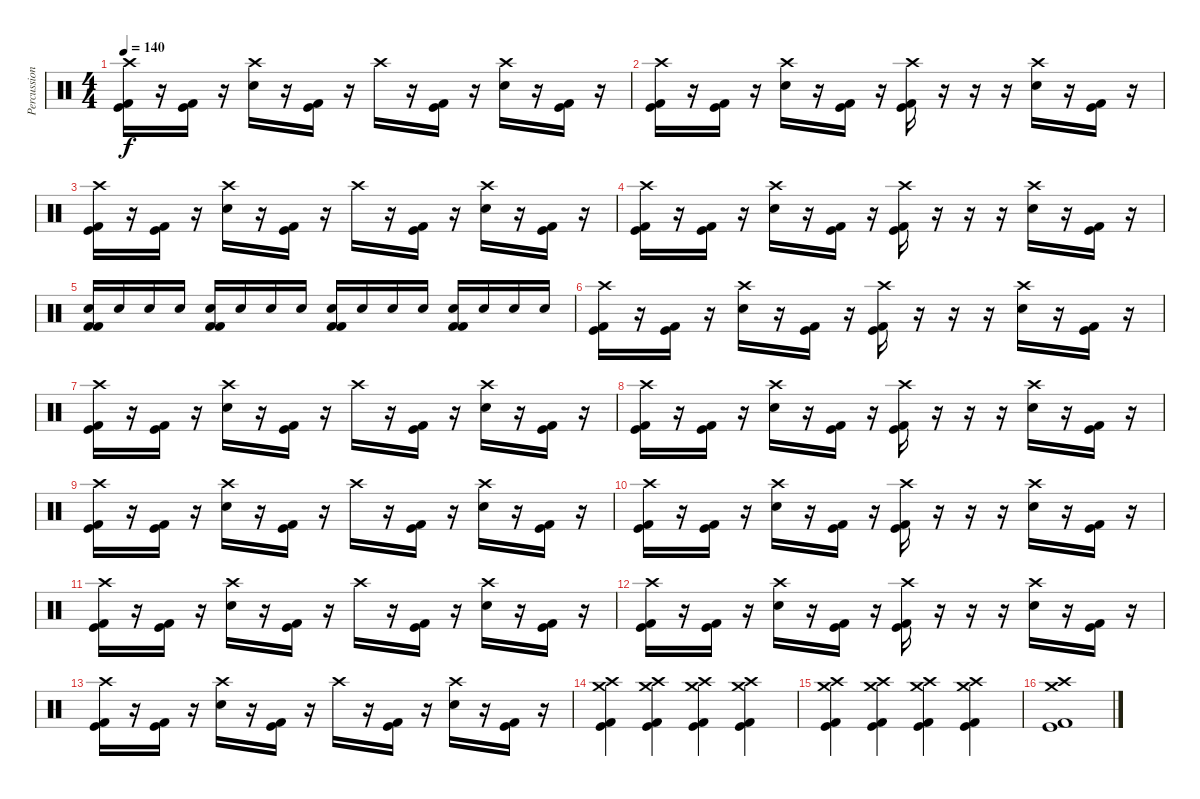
\track ("Percussion" "Percussion") {instrument percussion}
\staff {score}
\articulation defaults
\ts (4 4)
\tempo 140
\clef neutral
\ks c
("Crash high (hit)" "Kick (hit)" "Kick (hit) 2").16{dy f} r.16 ("Kick (hit)" "Kick (hit) 2").16 r.16 ("Crash high (hit)" "Electric Snare (hit)").16 r.16 ("Kick (hit)" "Kick (hit) 2").16 r.16 "Crash high (hit)".16 r.16 ("Kick (hit)" "Kick (hit) 2").16 r.16 ("Crash high (hit)" "Electric Snare (hit)").16 r.16 ("Kick (hit)" "Kick (hit) 2").16 r.16 |
("Crash high (hit)" "Kick (hit)" "Kick (hit) 2").16 r.16 ("Kick (hit)" "Kick (hit) 2").16 r.16 ("Crash high (hit)" "Electric Snare (hit)").16 r.16 ("Kick (hit)" "Kick (hit) 2").16 r.16 ("Crash high (hit)" "Kick (hit)" "Kick (hit) 2").16 r.16 r.16 r.16 ("Crash high (hit)" "Electric Snare (hit)").16 r.16 ("Kick (hit)" "Kick (hit) 2").16 r.16 |
("Crash high (hit)" "Kick (hit)" "Kick (hit) 2").16 r.16 ("Kick (hit)" "Kick (hit) 2").16 r.16 ("Crash high (hit)" "Electric Snare (hit)").16 r.16 ("Kick (hit)" "Kick (hit) 2").16 r.16 "Crash high (hit)".16 r.16 ("Kick (hit)" "Kick (hit) 2").16 r.16 ("Crash high (hit)" "Electric Snare (hit)").16 r.16 ("Kick (hit)" "Kick (hit) 2").16 r.16 |
("Crash high (hit)" "Kick (hit)" "Kick (hit) 2").16 r.16 ("Kick (hit)" "Kick (hit) 2").16 r.16 ("Crash high (hit)" "Electric Snare (hit)").16 r.16 ("Kick (hit)" "Kick (hit) 2").16 r.16 ("Crash high (hit)" "Kick (hit)" "Kick (hit) 2").16 r.16 r.16 r.16 ("Crash high (hit)" "Electric Snare (hit)").16 r.16 ("Kick (hit)" "Kick (hit) 2").16 r.16 |
("Electric Snare (hit)" "Kick (hit) 2" "Kick (hit) 2").16 "Electric Snare (hit)".16 "Electric Snare (hit)".16 "Electric Snare (hit)".16 ("Electric Snare (hit)" "Kick (hit) 2" "Kick (hit) 2").16 "Electric Snare (hit)".16 "Electric Snare (hit)".16 "Electric Snare (hit)".16 ("Electric Snare (hit)" "Kick (hit) 2" "Kick (hit) 2").16 "Electric Snare (hit)".16 "Electric Snare (hit)".16 "Electric Snare (hit)".16 ("Electric Snare (hit)" "Kick (hit) 2" "Kick (hit) 2").16 "Electric Snare (hit)".16 "Electric Snare (hit)".16 "Electric Snare (hit)".16 |
("Crash high (hit)" "Kick (hit)" "Kick (hit) 2").16 r.16 ("Kick (hit)" "Kick (hit) 2").16 r.16 ("Crash high (hit)" "Electric Snare (hit)").16 r.16 ("Kick (hit)" "Kick (hit) 2").16 r.16 ("Crash high (hit)" "Kick (hit)" "Kick (hit) 2").16 r.16 r.16 r.16 ("Crash high (hit)" "Electric Snare (hit)").16 r.16 ("Kick (hit)" "Kick (hit) 2").16 r.16 |
("Crash high (hit)" "Kick (hit)" "Kick (hit) 2").16 r.16 ("Kick (hit)" "Kick (hit) 2").16 r.16 ("Crash high (hit)" "Electric Snare (hit)").16 r.16 ("Kick (hit)" "Kick (hit) 2").16 r.16 "Crash high (hit)".16 r.16 ("Kick (hit)" "Kick (hit) 2").16 r.16 ("Crash high (hit)" "Electric Snare (hit)").16 r.16 ("Kick (hit)" "Kick (hit) 2").16 r.16 |
("Crash high (hit)" "Kick (hit)" "Kick (hit) 2").16 r.16 ("Kick (hit)" "Kick (hit) 2").16 r.16 ("Crash high (hit)" "Electric Snare (hit)").16 r.16 ("Kick (hit)" "Kick (hit) 2").16 r.16 ("Crash high (hit)" "Kick (hit)" "Kick (hit) 2").16 r.16 r.16 r.16 ("Crash high (hit)" "Electric Snare (hit)").16 r.16 ("Kick (hit)" "Kick (hit) 2").16 r.16 |
("Crash high (hit)" "Kick (hit)" "Kick (hit) 2").16 r.16 ("Kick (hit)" "Kick (hit) 2").16 r.16 ("Crash high (hit)" "Electric Snare (hit)").16 r.16 ("Kick (hit)" "Kick (hit) 2").16 r.16 "Crash high (hit)".16 r.16 ("Kick (hit)" "Kick (hit) 2").16 r.16 ("Crash high (hit)" "Electric Snare (hit)").16 r.16 ("Kick (hit)" "Kick (hit) 2").16 r.16 |
("Crash high (hit)" "Kick (hit)" "Kick (hit) 2").16 r.16 ("Kick (hit)" "Kick (hit) 2").16 r.16 ("Crash high (hit)" "Electric Snare (hit)").16 r.16 ("Kick (hit)" "Kick (hit) 2").16 r.16 ("Crash high (hit)" "Kick (hit)" "Kick (hit) 2").16 r.16 r.16 r.16 ("Crash high (hit)" "Electric Snare (hit)").16 r.16 ("Kick (hit)" "Kick (hit) 2").16 r.16 |
("Crash high (hit)" "Kick (hit)" "Kick (hit) 2").16 r.16 ("Kick (hit)" "Kick (hit) 2").16 r.16 ("Crash high (hit)" "Electric Snare (hit)").16 r.16 ("Kick (hit)" "Kick (hit) 2").16 r.16 "Crash high (hit)".16 r.16 ("Kick (hit)" "Kick (hit) 2").16 r.16 ("Crash high (hit)" "Electric Snare (hit)").16 r.16 ("Kick (hit)" "Kick (hit) 2").16 r.16 |
("Crash high (hit)" "Kick (hit)" "Kick (hit) 2").16 r.16 ("Kick (hit)" "Kick (hit) 2").16 r.16 ("Crash high (hit)" "Electric Snare (hit)").16 r.16 ("Kick (hit)" "Kick (hit) 2").16 r.16 ("Crash high (hit)" "Kick (hit)" "Kick (hit) 2").16 r.16 r.16 r.16 ("Crash high (hit)" "Electric Snare (hit)").16 r.16 ("Kick (hit)" "Kick (hit) 2").16 r.16 |
("Crash high (hit)" "Kick (hit)" "Kick (hit) 2").16 r.16 ("Kick (hit)" "Kick (hit) 2").16 r.16 ("Crash high (hit)" "Electric Snare (hit)").16 r.16 ("Kick (hit)" "Kick (hit) 2").16 r.16 "Crash high (hit)".16 r.16 ("Kick (hit)" "Kick (hit) 2").16 r.16 ("Crash high (hit)" "Electric Snare (hit)").16 r.16 ("Kick (hit)" "Kick (hit) 2").16 r.16 |
("Crash high (hit)" "Crash medium (hit)" "Kick (hit)" "Kick (hit) 2").4 ("Crash high (hit)" "Crash medium (hit)" "Kick (hit)" "Kick (hit) 2").4 ("Crash high (hit)" "Crash medium (hit)" "Kick (hit)" "Kick (hit) 2").4 ("Crash high (hit)" "Crash medium (hit)" "Kick (hit)" "Kick (hit) 2").4 |
("Crash high (hit)" "Crash medium (hit)" "Kick (hit)" "Kick (hit) 2").4 ("Crash high (hit)" "Crash medium (hit)" "Kick (hit)" "Kick (hit) 2").4 ("Crash high (hit)" "Crash medium (hit)" "Kick (hit)" "Kick (hit) 2").4 ("Crash high (hit)" "Crash medium (hit)" "Kick (hit)" "Kick (hit) 2").4 |
("Crash high (hit)" "Crash medium (hit)" "Kick (hit)" "Kick (hit) 2").1
